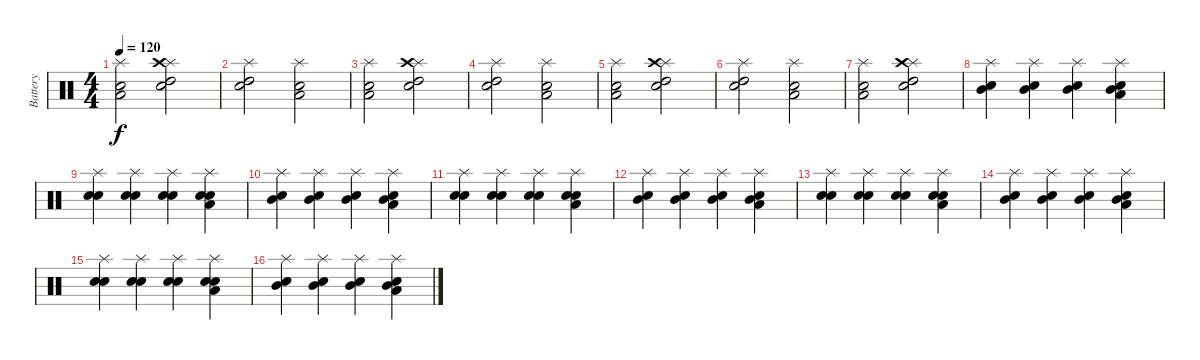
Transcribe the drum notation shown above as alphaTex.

\track ("Battery" "Battery") {instrument percussion}
\staff {score}
\articulation defaults
\ts (4 4)
\tempo 120
\clef neutral
\ks c
("Snare (hit) 2" "Splash (hit)" "Low Floor Tom (hit)").2{dy f} ("Snare (hit) 2" "Splash (hit)" "High Tom (hit)" "Crash high (hit)").2 |
("Snare (hit) 2" "Splash (hit)" "High Tom (hit)").2 ("Snare (hit) 2" "Splash (hit)" "Low Floor Tom (hit)").2 |
("Snare (hit) 2" "Splash (hit)" "Low Floor Tom (hit)").2 ("Snare (hit) 2" "Splash (hit)" "High Tom (hit)" "Crash high (hit)").2 |
("Snare (hit) 2" "Splash (hit)" "High Tom (hit)").2 ("Snare (hit) 2" "Splash (hit)" "Low Floor Tom (hit)").2 |
("Snare (hit) 2" "Splash (hit)" "Low Floor Tom (hit)").2 ("Snare (hit) 2" "Splash (hit)" "High Tom (hit)" "Crash high (hit)").2 |
("Snare (hit) 2" "Splash (hit)" "High Tom (hit)").2 ("Snare (hit) 2" "Splash (hit)" "Low Floor Tom (hit)").2 |
("Snare (hit) 2" "Splash (hit)" "Low Floor Tom (hit)").2 ("Snare (hit) 2" "Splash (hit)" "High Tom (hit)" "Crash high (hit)").2 |
("Snare (hit) 2" "Mid Tom (hit)" "Splash (hit)").4 ("Snare (hit) 2" "Mid Tom (hit)" "Splash (hit)").4 ("Snare (hit) 2" "Mid Tom (hit)" "Splash (hit)").4 ("Snare (hit) 2" "Mid Tom (hit)" "Low Floor Tom (hit)" "Splash (hit)").4 |
("Snare (hit) 2" "Electric Snare (hit)" "Splash (hit)").4 ("Snare (hit) 2" "Electric Snare (hit)" "Splash (hit)").4 ("Snare (hit) 2" "Electric Snare (hit)" "Splash (hit)").4 ("Snare (hit) 2" "Electric Snare (hit)" "Low Floor Tom (hit)" "Splash (hit)").4 |
("Snare (hit) 2" "Mid Tom (hit)" "Splash (hit)").4 ("Snare (hit) 2" "Mid Tom (hit)" "Splash (hit)").4 ("Snare (hit) 2" "Mid Tom (hit)" "Splash (hit)").4 ("Snare (hit) 2" "Mid Tom (hit)" "Low Floor Tom (hit)" "Splash (hit)").4 |
("Snare (hit) 2" "Electric Snare (hit)" "Splash (hit)").4 ("Snare (hit) 2" "Electric Snare (hit)" "Splash (hit)").4 ("Snare (hit) 2" "Electric Snare (hit)" "Splash (hit)").4 ("Snare (hit) 2" "Electric Snare (hit)" "Low Floor Tom (hit)" "Splash (hit)").4 |
("Snare (hit) 2" "Mid Tom (hit)" "Splash (hit)").4 ("Snare (hit) 2" "Mid Tom (hit)" "Splash (hit)").4 ("Snare (hit) 2" "Mid Tom (hit)" "Splash (hit)").4 ("Snare (hit) 2" "Mid Tom (hit)" "Low Floor Tom (hit)" "Splash (hit)").4 |
("Snare (hit) 2" "Electric Snare (hit)" "Splash (hit)").4 ("Snare (hit) 2" "Electric Snare (hit)" "Splash (hit)").4 ("Snare (hit) 2" "Electric Snare (hit)" "Splash (hit)").4 ("Snare (hit) 2" "Electric Snare (hit)" "Low Floor Tom (hit)" "Splash (hit)").4 |
("Snare (hit) 2" "Mid Tom (hit)" "Splash (hit)").4 ("Snare (hit) 2" "Mid Tom (hit)" "Splash (hit)").4 ("Snare (hit) 2" "Mid Tom (hit)" "Splash (hit)").4 ("Snare (hit) 2" "Mid Tom (hit)" "Low Floor Tom (hit)" "Splash (hit)").4 |
("Snare (hit) 2" "Electric Snare (hit)" "Splash (hit)").4 ("Snare (hit) 2" "Electric Snare (hit)" "Splash (hit)").4 ("Snare (hit) 2" "Electric Snare (hit)" "Splash (hit)").4 ("Snare (hit) 2" "Electric Snare (hit)" "Low Floor Tom (hit)" "Splash (hit)").4 |
("Snare (hit) 2" "Mid Tom (hit)" "Splash (hit)").4 ("Snare (hit) 2" "Mid Tom (hit)" "Splash (hit)").4 ("Snare (hit) 2" "Mid Tom (hit)" "Splash (hit)").4 ("Snare (hit) 2" "Mid Tom (hit)" "Low Floor Tom (hit)" "Splash (hit)").4
